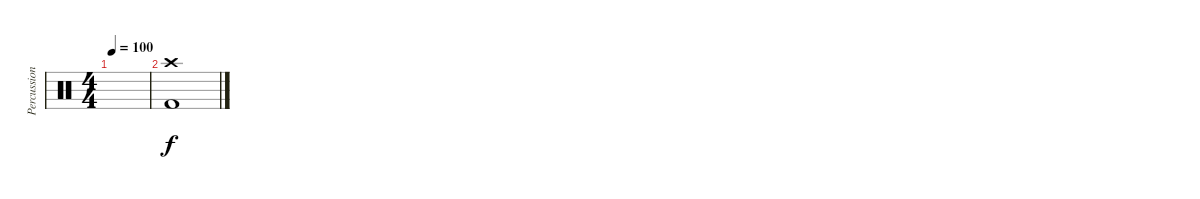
\track ("Percussions" "Percussion") {instrument percussion}
\staff {score}
\articulation defaults
\ts (4 4)
\tempo 100
\clef neutral
\ks c
|
("Crash high (hit)" "Kick (hit) 2").1
